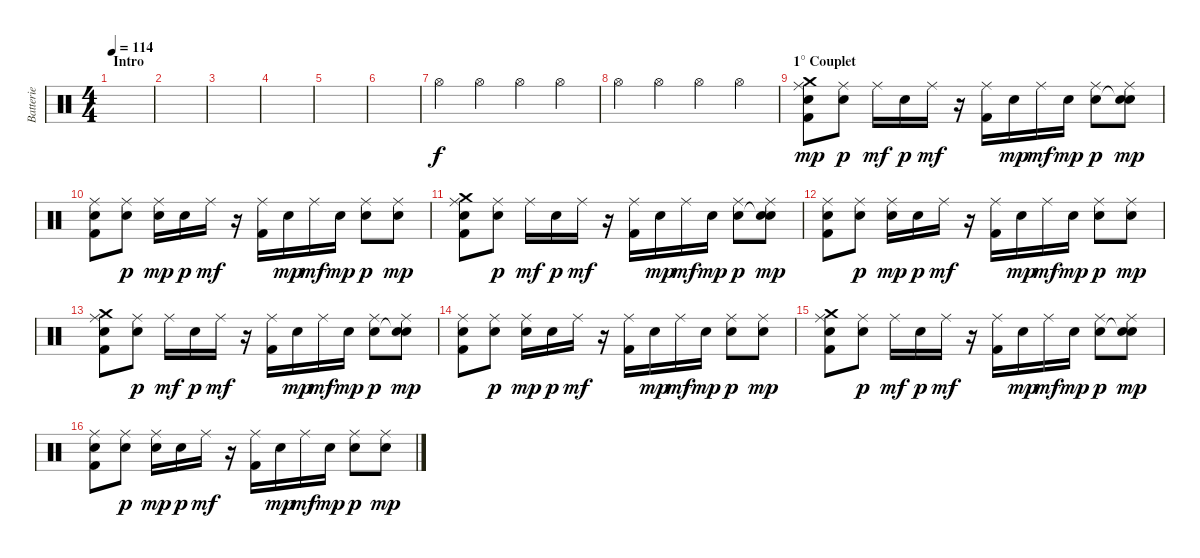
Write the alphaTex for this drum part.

\track ("Batterie" "Batterie") {instrument percussion}
\staff {score}
\articulation defaults
\ts (4 4)
\section ("" "Intro")
\tempo 114
\clef neutral
\ks c
|
|
|
|
|
|
"Hi-Hat (open)".4 "Hi-Hat (open)".4 "Hi-Hat (open)".4 "Hi-Hat (open)".4 |
"Hi-Hat (open)".4 "Hi-Hat (open)".4 "Hi-Hat (open)".4 "Hi-Hat (open)".4 |
\section ("" "1° Couplet")
("Ride (middle)" "Crash medium (hit)" "Kick (hit) 2" "Snare (hit) 2").8{dy mp} ("Ride (middle)" "Snare (hit) 2").8{dy p} "Ride (middle)".16{dy mf} "Snare (hit) 2".16{dy p} "Ride (middle)".16{dy mf} r.16 ("Ride (middle)" "Kick (hit) 2").16 "Snare (hit) 2".16{dy mp} "Ride (middle)".16{dy mf} "Snare (hit) 2".16{dy mp} ("Ride (middle)" "Snare (hit) 2").8{dy p} ("Ride (middle)" "Snare (hit)"{t} "Snare (hit) 2").8{dy mp} |
("Ride (middle)" "Kick (hit) 2" "Snare (hit) 2").8 ("Ride (middle)" "Snare (hit) 2").8{dy p} ("Ride (middle)" "Snare (hit) 2").16{dy mp} "Snare (hit) 2".16{dy p} "Ride (middle)".16{dy mf} r.16 ("Ride (middle)" "Kick (hit) 2").16 "Snare (hit) 2".16{dy mp} "Ride (middle)".16{dy mf} "Snare (hit) 2".16{dy mp} ("Ride (middle)" "Snare (hit) 2").8{dy p} ("Ride (middle)" "Snare (hit) 2").8{dy mp} |
("Ride (middle)" "Crash medium (hit)" "Kick (hit) 2" "Snare (hit) 2").8 ("Ride (middle)" "Snare (hit) 2").8{dy p} "Ride (middle)".16{dy mf} "Snare (hit) 2".16{dy p} "Ride (middle)".16{dy mf} r.16 ("Ride (middle)" "Kick (hit) 2").16 "Snare (hit) 2".16{dy mp} "Ride (middle)".16{dy mf} "Snare (hit) 2".16{dy mp} ("Ride (middle)" "Snare (hit) 2").8{dy p} ("Ride (middle)" "Snare (hit)"{t} "Snare (hit) 2").8{dy mp} |
("Ride (middle)" "Kick (hit) 2" "Snare (hit) 2").8 ("Ride (middle)" "Snare (hit) 2").8{dy p} ("Ride (middle)" "Snare (hit) 2").16{dy mp} "Snare (hit) 2".16{dy p} "Ride (middle)".16{dy mf} r.16 ("Ride (middle)" "Kick (hit) 2").16 "Snare (hit) 2".16{dy mp} "Ride (middle)".16{dy mf} "Snare (hit) 2".16{dy mp} ("Ride (middle)" "Snare (hit) 2").8{dy p} ("Ride (middle)" "Snare (hit) 2").8{dy mp} |
("Ride (middle)" "Crash medium (hit)" "Kick (hit) 2" "Snare (hit) 2").8 ("Ride (middle)" "Snare (hit) 2").8{dy p} "Ride (middle)".16{dy mf} "Snare (hit) 2".16{dy p} "Ride (middle)".16{dy mf} r.16 ("Ride (middle)" "Kick (hit) 2").16 "Snare (hit) 2".16{dy mp} "Ride (middle)".16{dy mf} "Snare (hit) 2".16{dy mp} ("Ride (middle)" "Snare (hit) 2").8{dy p} ("Ride (middle)" "Snare (hit)"{t} "Snare (hit) 2").8{dy mp} |
("Ride (middle)" "Kick (hit) 2" "Snare (hit) 2").8 ("Ride (middle)" "Snare (hit) 2").8{dy p} ("Ride (middle)" "Snare (hit) 2").16{dy mp} "Snare (hit) 2".16{dy p} "Ride (middle)".16{dy mf} r.16 ("Ride (middle)" "Kick (hit) 2").16 "Snare (hit) 2".16{dy mp} "Ride (middle)".16{dy mf} "Snare (hit) 2".16{dy mp} ("Ride (middle)" "Snare (hit) 2").8{dy p} ("Ride (middle)" "Snare (hit) 2").8{dy mp} |
("Ride (middle)" "Crash medium (hit)" "Kick (hit) 2" "Snare (hit) 2").8 ("Ride (middle)" "Snare (hit) 2").8{dy p} "Ride (middle)".16{dy mf} "Snare (hit) 2".16{dy p} "Ride (middle)".16{dy mf} r.16 ("Ride (middle)" "Kick (hit) 2").16 "Snare (hit) 2".16{dy mp} "Ride (middle)".16{dy mf} "Snare (hit) 2".16{dy mp} ("Ride (middle)" "Snare (hit) 2").8{dy p} ("Ride (middle)" "Snare (hit)"{t} "Snare (hit) 2").8{dy mp} |
("Ride (middle)" "Kick (hit) 2" "Snare (hit) 2").8 ("Ride (middle)" "Snare (hit) 2").8{dy p} ("Ride (middle)" "Snare (hit) 2").16{dy mp} "Snare (hit) 2".16{dy p} "Ride (middle)".16{dy mf} r.16 ("Ride (middle)" "Kick (hit) 2").16 "Snare (hit) 2".16{dy mp} "Ride (middle)".16{dy mf} "Snare (hit) 2".16{dy mp} ("Ride (middle)" "Snare (hit) 2").8{dy p} ("Ride (middle)" "Snare (hit) 2").8{dy mp}
